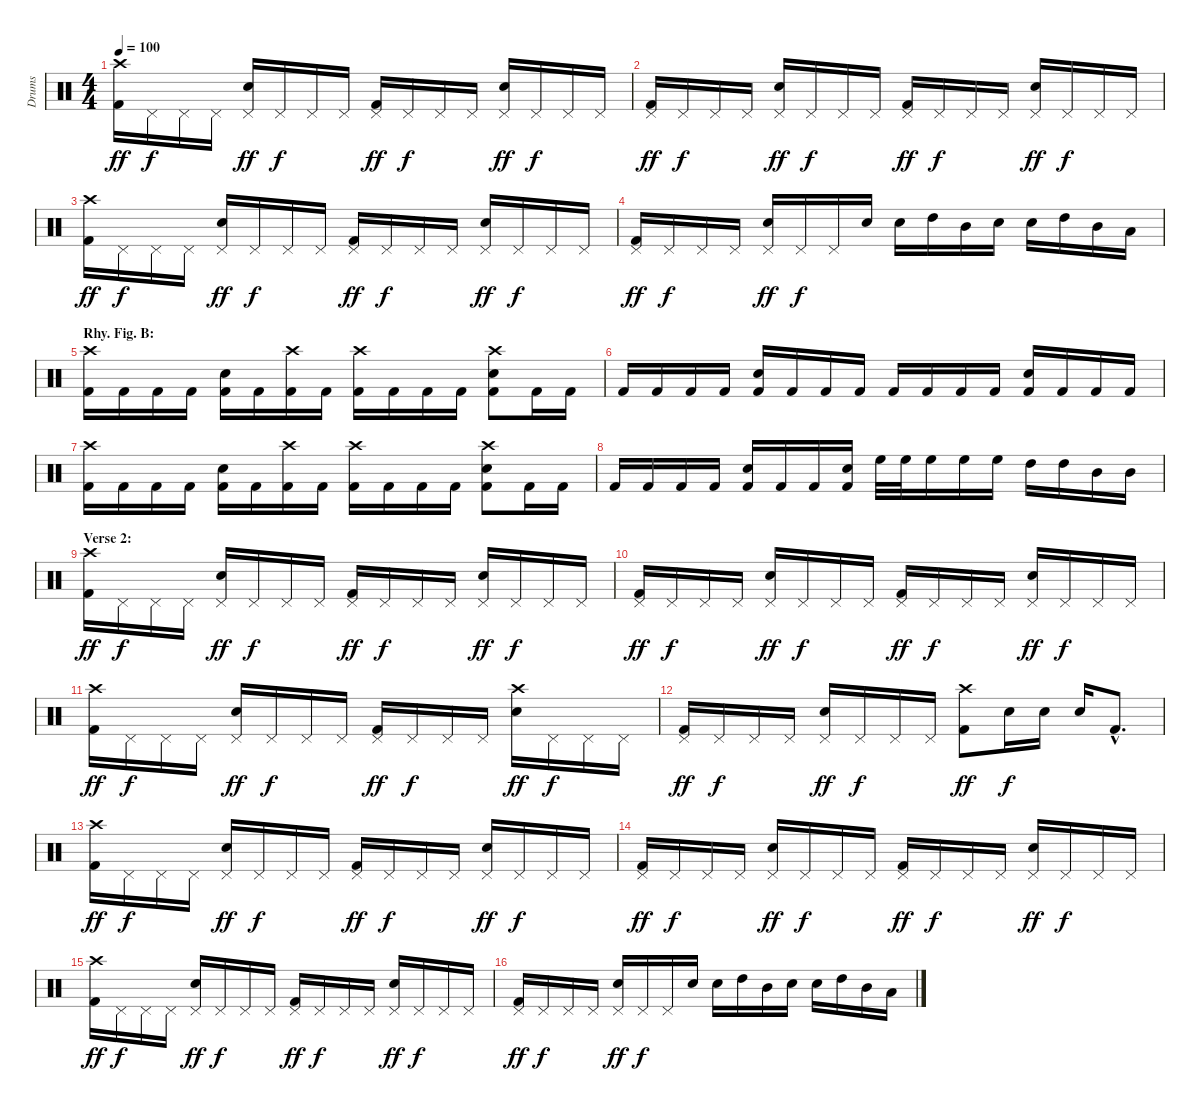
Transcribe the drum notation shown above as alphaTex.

\track ("Drums" "Drums") {instrument percussion}
\staff {score}
\articulation defaults
\ts (4 4)
\tempo 100
\clef neutral
\ks c
("Crash high (hit)" "Kick (hit) 2").16{dy ff} "Pedal Hi-Hat (hit)".16{dy f} "Pedal Hi-Hat (hit)".16 "Pedal Hi-Hat (hit)".16 ("Pedal Hi-Hat (hit)" "Electric Snare (hit)").16{dy ff} "Pedal Hi-Hat (hit)".16{dy f} "Pedal Hi-Hat (hit)".16 "Pedal Hi-Hat (hit)".16 ("Pedal Hi-Hat (hit)" "Kick (hit) 2").16{dy ff} "Pedal Hi-Hat (hit)".16{dy f} "Pedal Hi-Hat (hit)".16 "Pedal Hi-Hat (hit)".16 ("Pedal Hi-Hat (hit)" "Electric Snare (hit)").16{dy ff} "Pedal Hi-Hat (hit)".16{dy f} "Pedal Hi-Hat (hit)".16 "Pedal Hi-Hat (hit)".16 |
("Pedal Hi-Hat (hit)" "Kick (hit) 2").16{dy ff} "Pedal Hi-Hat (hit)".16{dy f} "Pedal Hi-Hat (hit)".16 "Pedal Hi-Hat (hit)".16 ("Pedal Hi-Hat (hit)" "Electric Snare (hit)").16{dy ff} "Pedal Hi-Hat (hit)".16{dy f} "Pedal Hi-Hat (hit)".16 "Pedal Hi-Hat (hit)".16 ("Pedal Hi-Hat (hit)" "Kick (hit) 2").16{dy ff} "Pedal Hi-Hat (hit)".16{dy f} "Pedal Hi-Hat (hit)".16 "Pedal Hi-Hat (hit)".16 ("Pedal Hi-Hat (hit)" "Electric Snare (hit)").16{dy ff} "Pedal Hi-Hat (hit)".16{dy f} "Pedal Hi-Hat (hit)".16 "Pedal Hi-Hat (hit)".16 |
("Crash high (hit)" "Kick (hit) 2").16{dy ff} "Pedal Hi-Hat (hit)".16{dy f} "Pedal Hi-Hat (hit)".16 "Pedal Hi-Hat (hit)".16 ("Pedal Hi-Hat (hit)" "Electric Snare (hit)").16{dy ff} "Pedal Hi-Hat (hit)".16{dy f} "Pedal Hi-Hat (hit)".16 "Pedal Hi-Hat (hit)".16 ("Pedal Hi-Hat (hit)" "Kick (hit) 2").16{dy ff} "Pedal Hi-Hat (hit)".16{dy f} "Pedal Hi-Hat (hit)".16 "Pedal Hi-Hat (hit)".16 ("Pedal Hi-Hat (hit)" "Electric Snare (hit)").16{dy ff} "Pedal Hi-Hat (hit)".16{dy f} "Pedal Hi-Hat (hit)".16 "Pedal Hi-Hat (hit)".16 |
("Pedal Hi-Hat (hit)" "Kick (hit) 2").16{dy ff} "Pedal Hi-Hat (hit)".16{dy f} "Pedal Hi-Hat (hit)".16 "Pedal Hi-Hat (hit)".16 ("Pedal Hi-Hat (hit)" "Electric Snare (hit)").16{dy ff} "Pedal Hi-Hat (hit)".16{dy f} "Pedal Hi-Hat (hit)".16 "Electric Snare (hit)".16 "Electric Snare (hit)".16 "High Tom (hit)".16 "Mid Tom (hit)".16 "Electric Snare (hit)".16 "Electric Snare (hit)".16 "High Tom (hit)".16 "Mid Tom (hit)".16 "Low Tom (hit)".16 |
\section ("" "Rhy. Fig. B:")
("Crash high (hit)" "Kick (hit) 2").16 "Kick (hit) 2".16 "Kick (hit) 2".16 "Kick (hit) 2".16 ("Electric Snare (hit)" "Kick (hit) 2").16 "Kick (hit) 2".16 ("Crash high (hit)" "Kick (hit) 2").16 "Kick (hit) 2".16 ("Crash high (hit)" "Kick (hit) 2").16 "Kick (hit) 2".16 "Kick (hit) 2".16 "Kick (hit) 2".16 ("Crash high (hit)" "Electric Snare (hit)" "Kick (hit) 2").8 "Kick (hit) 2".16 "Kick (hit) 2".16 |
"Kick (hit) 2".16 "Kick (hit) 2".16 "Kick (hit) 2".16 "Kick (hit) 2".16 ("Electric Snare (hit)" "Kick (hit) 2").16 "Kick (hit) 2".16 "Kick (hit) 2".16 "Kick (hit) 2".16 "Kick (hit) 2".16 "Kick (hit) 2".16 "Kick (hit) 2".16 "Kick (hit) 2".16 ("Electric Snare (hit)" "Kick (hit) 2").16 "Kick (hit) 2".16 "Kick (hit) 2".16 "Kick (hit) 2".16 |
("Crash high (hit)" "Kick (hit) 2").16 "Kick (hit) 2".16 "Kick (hit) 2".16 "Kick (hit) 2".16 ("Electric Snare (hit)" "Kick (hit) 2").16 "Kick (hit) 2".16 ("Crash high (hit)" "Kick (hit) 2").16 "Kick (hit) 2".16 ("Crash high (hit)" "Kick (hit) 2").16 "Kick (hit) 2".16 "Kick (hit) 2".16 "Kick (hit) 2".16 ("Crash high (hit)" "Electric Snare (hit)" "Kick (hit) 2").8 "Kick (hit) 2".16 "Kick (hit) 2".16 |
"Kick (hit) 2".16 "Kick (hit) 2".16 "Kick (hit) 2".16 "Kick (hit) 2".16 ("Electric Snare (hit)" "Kick (hit) 2").16 "Kick (hit) 2".16 "Kick (hit) 2".16 ("Electric Snare (hit)" "Kick (hit) 2").16 "High Floor Tom (hit)".32 "High Floor Tom (hit)".32 "High Floor Tom (hit)".16 "High Floor Tom (hit)".16 "High Floor Tom (hit)".16 "High Tom (hit)".16 "High Tom (hit)".16 "Mid Tom (hit)".16 "Mid Tom (hit)".16 |
\section ("" "Verse 2:")
("Crash high (hit)" "Kick (hit) 2").16{dy ff} "Pedal Hi-Hat (hit)".16{dy f} "Pedal Hi-Hat (hit)".16 "Pedal Hi-Hat (hit)".16 ("Pedal Hi-Hat (hit)" "Electric Snare (hit)").16{dy ff} "Pedal Hi-Hat (hit)".16{dy f} "Pedal Hi-Hat (hit)".16 "Pedal Hi-Hat (hit)".16 ("Pedal Hi-Hat (hit)" "Kick (hit) 2").16{dy ff} "Pedal Hi-Hat (hit)".16{dy f} "Pedal Hi-Hat (hit)".16 "Pedal Hi-Hat (hit)".16 ("Pedal Hi-Hat (hit)" "Electric Snare (hit)").16{dy ff} "Pedal Hi-Hat (hit)".16{dy f} "Pedal Hi-Hat (hit)".16 "Pedal Hi-Hat (hit)".16 |
("Pedal Hi-Hat (hit)" "Kick (hit) 2").16{dy ff} "Pedal Hi-Hat (hit)".16{dy f} "Pedal Hi-Hat (hit)".16 "Pedal Hi-Hat (hit)".16 ("Pedal Hi-Hat (hit)" "Electric Snare (hit)").16{dy ff} "Pedal Hi-Hat (hit)".16{dy f} "Pedal Hi-Hat (hit)".16 "Pedal Hi-Hat (hit)".16 ("Pedal Hi-Hat (hit)" "Kick (hit) 2").16{dy ff} "Pedal Hi-Hat (hit)".16{dy f} "Pedal Hi-Hat (hit)".16 "Pedal Hi-Hat (hit)".16 ("Pedal Hi-Hat (hit)" "Electric Snare (hit)").16{dy ff} "Pedal Hi-Hat (hit)".16{dy f} "Pedal Hi-Hat (hit)".16 "Pedal Hi-Hat (hit)".16 |
("Crash high (hit)" "Kick (hit) 2").16{dy ff} "Pedal Hi-Hat (hit)".16{dy f} "Pedal Hi-Hat (hit)".16 "Pedal Hi-Hat (hit)".16 ("Pedal Hi-Hat (hit)" "Electric Snare (hit)").16{dy ff} "Pedal Hi-Hat (hit)".16{dy f} "Pedal Hi-Hat (hit)".16 "Pedal Hi-Hat (hit)".16 ("Pedal Hi-Hat (hit)" "Kick (hit) 2").16{dy ff} "Pedal Hi-Hat (hit)".16{dy f} "Pedal Hi-Hat (hit)".16 "Pedal Hi-Hat (hit)".16 ("Crash high (hit)" "Electric Snare (hit)").16{dy ff} "Pedal Hi-Hat (hit)".16{dy f} "Pedal Hi-Hat (hit)".16 "Pedal Hi-Hat (hit)".16 |
("Pedal Hi-Hat (hit)" "Kick (hit) 2").16{dy ff} "Pedal Hi-Hat (hit)".16{dy f} "Pedal Hi-Hat (hit)".16 "Pedal Hi-Hat (hit)".16 ("Pedal Hi-Hat (hit)" "Electric Snare (hit)").16{dy ff} "Pedal Hi-Hat (hit)".16{dy f} "Pedal Hi-Hat (hit)".16 "Pedal Hi-Hat (hit)".16 ("Crash high (hit)" "Kick (hit) 2").8{dy ff} "Electric Snare (hit)".16{dy f} "Electric Snare (hit)".16 "Electric Snare (hit)".16 "Kick (hit) 2"{hac}.8{d} |
("Crash high (hit)" "Kick (hit) 2").16{dy ff} "Pedal Hi-Hat (hit)".16{dy f} "Pedal Hi-Hat (hit)".16 "Pedal Hi-Hat (hit)".16 ("Pedal Hi-Hat (hit)" "Electric Snare (hit)").16{dy ff} "Pedal Hi-Hat (hit)".16{dy f} "Pedal Hi-Hat (hit)".16 "Pedal Hi-Hat (hit)".16 ("Pedal Hi-Hat (hit)" "Kick (hit) 2").16{dy ff} "Pedal Hi-Hat (hit)".16{dy f} "Pedal Hi-Hat (hit)".16 "Pedal Hi-Hat (hit)".16 ("Pedal Hi-Hat (hit)" "Electric Snare (hit)").16{dy ff} "Pedal Hi-Hat (hit)".16{dy f} "Pedal Hi-Hat (hit)".16 "Pedal Hi-Hat (hit)".16 |
("Pedal Hi-Hat (hit)" "Kick (hit) 2").16{dy ff} "Pedal Hi-Hat (hit)".16{dy f} "Pedal Hi-Hat (hit)".16 "Pedal Hi-Hat (hit)".16 ("Pedal Hi-Hat (hit)" "Electric Snare (hit)").16{dy ff} "Pedal Hi-Hat (hit)".16{dy f} "Pedal Hi-Hat (hit)".16 "Pedal Hi-Hat (hit)".16 ("Pedal Hi-Hat (hit)" "Kick (hit) 2").16{dy ff} "Pedal Hi-Hat (hit)".16{dy f} "Pedal Hi-Hat (hit)".16 "Pedal Hi-Hat (hit)".16 ("Pedal Hi-Hat (hit)" "Electric Snare (hit)").16{dy ff} "Pedal Hi-Hat (hit)".16{dy f} "Pedal Hi-Hat (hit)".16 "Pedal Hi-Hat (hit)".16 |
("Crash high (hit)" "Kick (hit) 2").16{dy ff} "Pedal Hi-Hat (hit)".16{dy f} "Pedal Hi-Hat (hit)".16 "Pedal Hi-Hat (hit)".16 ("Pedal Hi-Hat (hit)" "Electric Snare (hit)").16{dy ff} "Pedal Hi-Hat (hit)".16{dy f} "Pedal Hi-Hat (hit)".16 "Pedal Hi-Hat (hit)".16 ("Pedal Hi-Hat (hit)" "Kick (hit) 2").16{dy ff} "Pedal Hi-Hat (hit)".16{dy f} "Pedal Hi-Hat (hit)".16 "Pedal Hi-Hat (hit)".16 ("Pedal Hi-Hat (hit)" "Electric Snare (hit)").16{dy ff} "Pedal Hi-Hat (hit)".16{dy f} "Pedal Hi-Hat (hit)".16 "Pedal Hi-Hat (hit)".16 |
("Pedal Hi-Hat (hit)" "Kick (hit) 2").16{dy ff} "Pedal Hi-Hat (hit)".16{dy f} "Pedal Hi-Hat (hit)".16 "Pedal Hi-Hat (hit)".16 ("Pedal Hi-Hat (hit)" "Electric Snare (hit)").16{dy ff} "Pedal Hi-Hat (hit)".16{dy f} "Pedal Hi-Hat (hit)".16 "Electric Snare (hit)".16 "Electric Snare (hit)".16 "High Tom (hit)".16 "Mid Tom (hit)".16 "Electric Snare (hit)".16 "Electric Snare (hit)".16 "High Tom (hit)".16 "Mid Tom (hit)".16 "Low Tom (hit)".16
